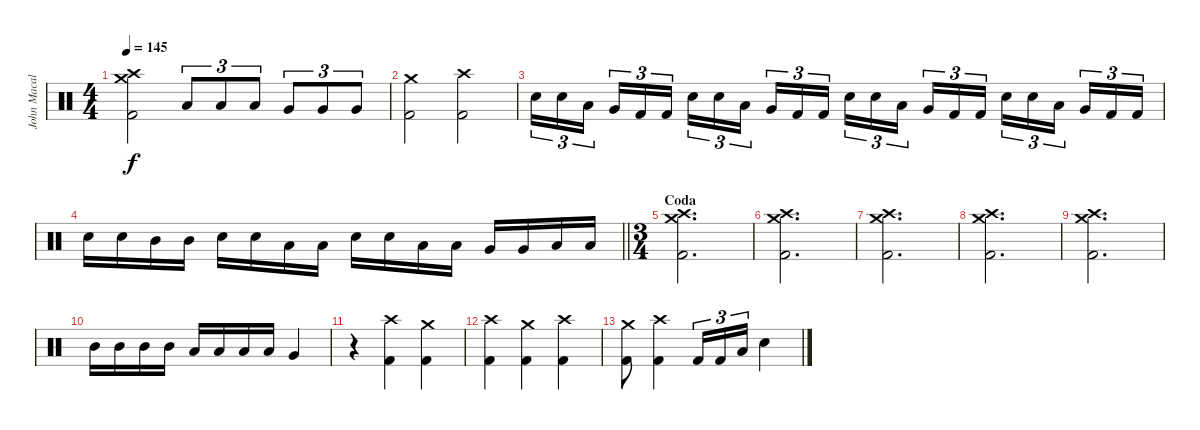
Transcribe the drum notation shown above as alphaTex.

\track ("John Macaluso" "John Macal") {instrument percussion}
\staff {score}
\articulation defaults
\ts (4 4)
\tempo 145
\clef neutral
\ks c
("Crash medium (hit)" "Crash high (hit)" "Kick (hit) 2").2{dy f} "Low Tom (hit)".8{tu (3 2)} "Low Tom (hit)".8{tu (3 2)} "Low Tom (hit)".8{tu (3 2)} "Very Low Tom (hit)".8{tu (3 2)} "Very Low Tom (hit)".8{tu (3 2)} "Very Low Tom (hit)".8{tu (3 2)} |
("Crash medium (hit)" "Kick (hit) 2").2 ("Crash high (hit)" "Kick (hit) 2").2 |
"Snare (hit) 2".16{tu (3 2)} "Snare (hit) 2".16{tu (3 2)} "Low Tom (hit)".16{tu (3 2) beam splitsecondary} "Very Low Tom (hit)".16{tu (3 2)} "Kick (hit) 2".16{tu (3 2)} "Kick (hit) 2".16{tu (3 2)} "Snare (hit) 2".16{tu (3 2)} "Snare (hit) 2".16{tu (3 2)} "Low Tom (hit)".16{tu (3 2) beam splitsecondary} "Very Low Tom (hit)".16{tu (3 2)} "Kick (hit) 2".16{tu (3 2)} "Kick (hit) 2".16{tu (3 2)} "Snare (hit) 2".16{tu (3 2)} "Snare (hit) 2".16{tu (3 2)} "Low Tom (hit)".16{tu (3 2) beam splitsecondary} "Very Low Tom (hit)".16{tu (3 2)} "Kick (hit) 2".16{tu (3 2)} "Kick (hit) 2".16{tu (3 2)} "Snare (hit) 2".16{tu (3 2)} "Snare (hit) 2".16{tu (3 2)} "Low Tom (hit)".16{tu (3 2) beam splitsecondary} "Very Low Tom (hit)".16{tu (3 2)} "Kick (hit) 2".16{tu (3 2)} "Kick (hit) 2".16{tu (3 2)} |
\barLineRight lightlight "Snare (hit) 2".16 "Snare (hit) 2".16 "Mid Tom (hit)".16 "Mid Tom (hit)".16 "Snare (hit) 2".16 "Snare (hit) 2".16 "Low Tom (hit)".16 "Low Tom (hit)".16 "Snare (hit) 2".16 "Snare (hit) 2".16 "Low Tom (hit)".16 "Low Tom (hit)".16 "Very Low Tom (hit)".16 "Very Low Tom (hit)".16 "Low Floor Tom (hit)".16 "Low Floor Tom (hit)".16
|
\ts (3 4)
\section ("" "Coda")
("Crash medium (hit)" "Crash high (hit)" "Kick (hit) 2").2{d} |
("Crash high (hit)" "Crash medium (hit)" "Kick (hit) 2").2{d} |
("Crash medium (hit)" "Crash high (hit)" "Kick (hit) 2").2{d} |
("Crash high (hit)" "Crash medium (hit)" "Kick (hit) 2").2{d} |
("Crash medium (hit)" "Crash high (hit)" "Kick (hit) 2").2{d} |
"Mid Tom (hit)".16 "Mid Tom (hit)".16 "Mid Tom (hit)".16 "Mid Tom (hit)".16 "Low Tom (hit)".16 "Low Tom (hit)".16 "Low Tom (hit)".16 "Low Tom (hit)".16 "Very Low Tom (hit)".4 |
r.4 ("Crash high (hit)" "Kick (hit) 2").4 ("Crash medium (hit)" "Kick (hit) 2").4 |
("Crash high (hit)" "Kick (hit) 2").4 ("Crash medium (hit)" "Kick (hit) 2").4 ("Crash high (hit)" "Kick (hit) 2").4 |
("Crash medium (hit)" "Kick (hit) 2").8 ("Crash high (hit)" "Kick (hit) 2").4 "Kick (hit) 2".16{tu (3 2)} "Kick (hit) 2".16{tu (3 2)} "Low Tom (hit)".16{tu (3 2)} "Snare (hit) 2".4
